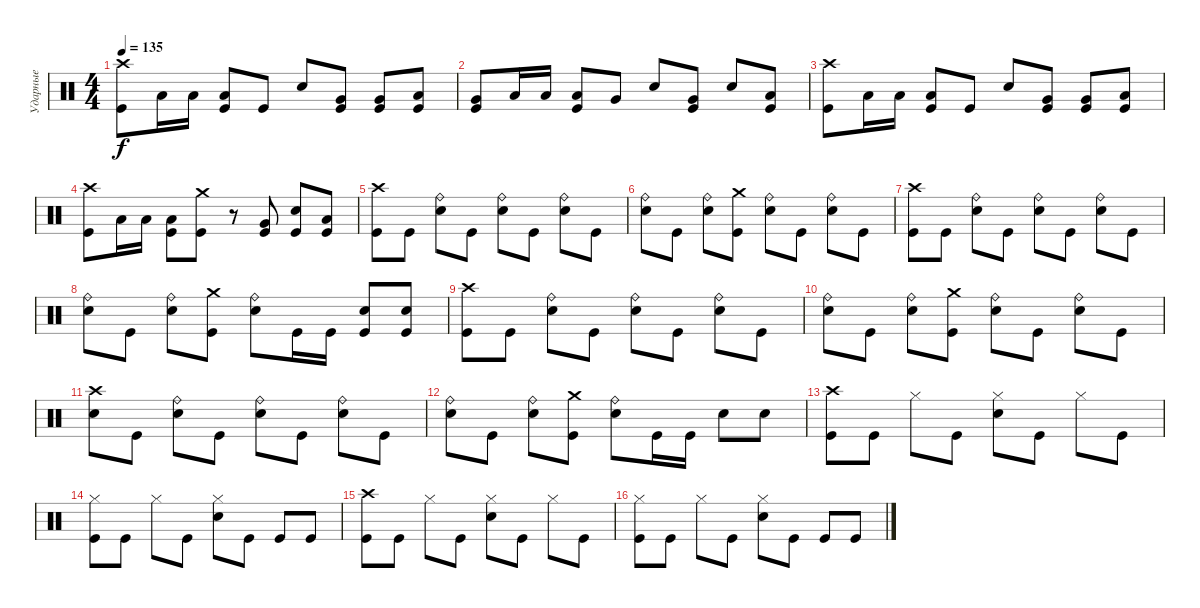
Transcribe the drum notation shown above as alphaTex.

\track ("Ударные" "Ударные") {instrument percussion}
\staff {score}
\articulation defaults
\ts (4 4)
\tempo 135
\clef neutral
\ks c
("Crash high (hit)" "Kick (hit)").8{dy f} "Low Tom (hit)".16 "Low Tom (hit)".16 ("Low Tom (hit)" "Kick (hit)").8 "Kick (hit)".8 "Electric Snare (hit)".8 ("Very Low Tom (hit)" "Kick (hit)").8 ("Very Low Tom (hit)" "Kick (hit)").8 ("Low Tom (hit)" "Kick (hit)").8 |
("Very Low Tom (hit)" "Kick (hit)").8 "Low Tom (hit)".16 "Low Tom (hit)".16 ("Low Tom (hit)" "Kick (hit)").8 "Very Low Tom (hit)".8 "Electric Snare (hit)".8 ("Very Low Tom (hit)" "Kick (hit)").8 "Electric Snare (hit)".8 ("Low Tom (hit)" "Kick (hit)").8 |
("Crash high (hit)" "Kick (hit)").8 "Low Tom (hit)".16 "Low Tom (hit)".16 ("Low Tom (hit)" "Kick (hit)").8 "Kick (hit)".8 "Electric Snare (hit)".8 ("Very Low Tom (hit)" "Kick (hit)").8 ("Very Low Tom (hit)" "Kick (hit)").8 ("Low Tom (hit)" "Kick (hit)").8 |
("Crash high (hit)" "Kick (hit)").8 "Low Tom (hit)".16 "Low Tom (hit)".16 ("Low Tom (hit)" "Kick (hit)").8 ("Crash medium (hit)" "Kick (hit)").8 r.8 ("Very Low Tom (hit)" "Kick (hit)").8 ("Electric Snare (hit)" "Kick (hit)").8 ("Low Tom (hit)" "Kick (hit)").8 |
("Crash high (hit)" "Kick (hit)").8 "Kick (hit)".8 ("Ride (bell)" "Electric Snare (hit)").8 "Kick (hit)".8 ("Ride (bell)" "Electric Snare (hit)").8 "Kick (hit)".8 ("Ride (bell)" "Electric Snare (hit)").8 "Kick (hit)".8 |
("Ride (bell)" "Electric Snare (hit)").8 "Kick (hit)".8 ("Ride (bell)" "Electric Snare (hit)").8 ("Crash medium (hit)" "Kick (hit)").8 ("Ride (bell)" "Electric Snare (hit)").8 "Kick (hit)".8 ("Ride (bell)" "Electric Snare (hit)").8 "Kick (hit)".8 |
("Crash high (hit)" "Kick (hit)").8 "Kick (hit)".8 ("Ride (bell)" "Electric Snare (hit)").8 "Kick (hit)".8 ("Ride (bell)" "Electric Snare (hit)").8 "Kick (hit)".8 ("Ride (bell)" "Electric Snare (hit)").8 "Kick (hit)".8 |
("Ride (bell)" "Electric Snare (hit)").8 "Kick (hit)".8 ("Ride (bell)" "Electric Snare (hit)").8 ("Crash medium (hit)" "Kick (hit)").8 ("Ride (bell)" "Electric Snare (hit)").8 "Kick (hit)".16 "Kick (hit)".16 ("Electric Snare (hit)" "Kick (hit)").8 ("Electric Snare (hit)" "Kick (hit)").8 |
("Crash high (hit)" "Kick (hit)").8 "Kick (hit)".8 ("Ride (bell)" "Electric Snare (hit)").8 "Kick (hit)".8 ("Ride (bell)" "Electric Snare (hit)").8 "Kick (hit)".8 ("Ride (bell)" "Electric Snare (hit)").8 "Kick (hit)".8 |
("Ride (bell)" "Electric Snare (hit)").8 "Kick (hit)".8 ("Ride (bell)" "Electric Snare (hit)").8 ("Crash medium (hit)" "Kick (hit)").8 ("Ride (bell)" "Electric Snare (hit)").8 "Kick (hit)".8 ("Ride (bell)" "Electric Snare (hit)").8 "Kick (hit)".8 |
("Crash high (hit)" "Electric Snare (hit)").8 "Kick (hit)".8 ("Ride (bell)" "Electric Snare (hit)").8 "Kick (hit)".8 ("Ride (bell)" "Electric Snare (hit)").8 "Kick (hit)".8 ("Ride (bell)" "Electric Snare (hit)").8 "Kick (hit)".8 |
("Ride (bell)" "Electric Snare (hit)").8 "Kick (hit)".8 ("Ride (bell)" "Electric Snare (hit)").8 ("Crash medium (hit)" "Kick (hit)").8 ("Ride (bell)" "Electric Snare (hit)").8 "Kick (hit)".16 "Kick (hit)".16 "Electric Snare (hit)".8 "Electric Snare (hit)".8 |
("Crash high (hit)" "Kick (hit)").8 "Kick (hit)".8 "Hi-Hat (closed)".8 "Kick (hit)".8 ("Hi-Hat (closed)" "Electric Snare (hit)").8 "Kick (hit)".8 "Hi-Hat (closed)".8 "Kick (hit)".8 |
("Hi-Hat (closed)" "Kick (hit)").8 "Kick (hit)".8 "Hi-Hat (closed)".8 "Kick (hit)".8 ("Hi-Hat (closed)" "Electric Snare (hit)").8 "Kick (hit)".8 "Kick (hit)".8 "Kick (hit)".8 |
("Crash high (hit)" "Kick (hit)").8 "Kick (hit)".8 "Hi-Hat (closed)".8 "Kick (hit)".8 ("Hi-Hat (closed)" "Electric Snare (hit)").8 "Kick (hit)".8 "Hi-Hat (closed)".8 "Kick (hit)".8 |
("Hi-Hat (closed)" "Kick (hit)").8 "Kick (hit)".8 "Hi-Hat (closed)".8 "Kick (hit)".8 ("Hi-Hat (closed)" "Electric Snare (hit)").8 "Kick (hit)".8 "Kick (hit)".8 "Kick (hit)".8
